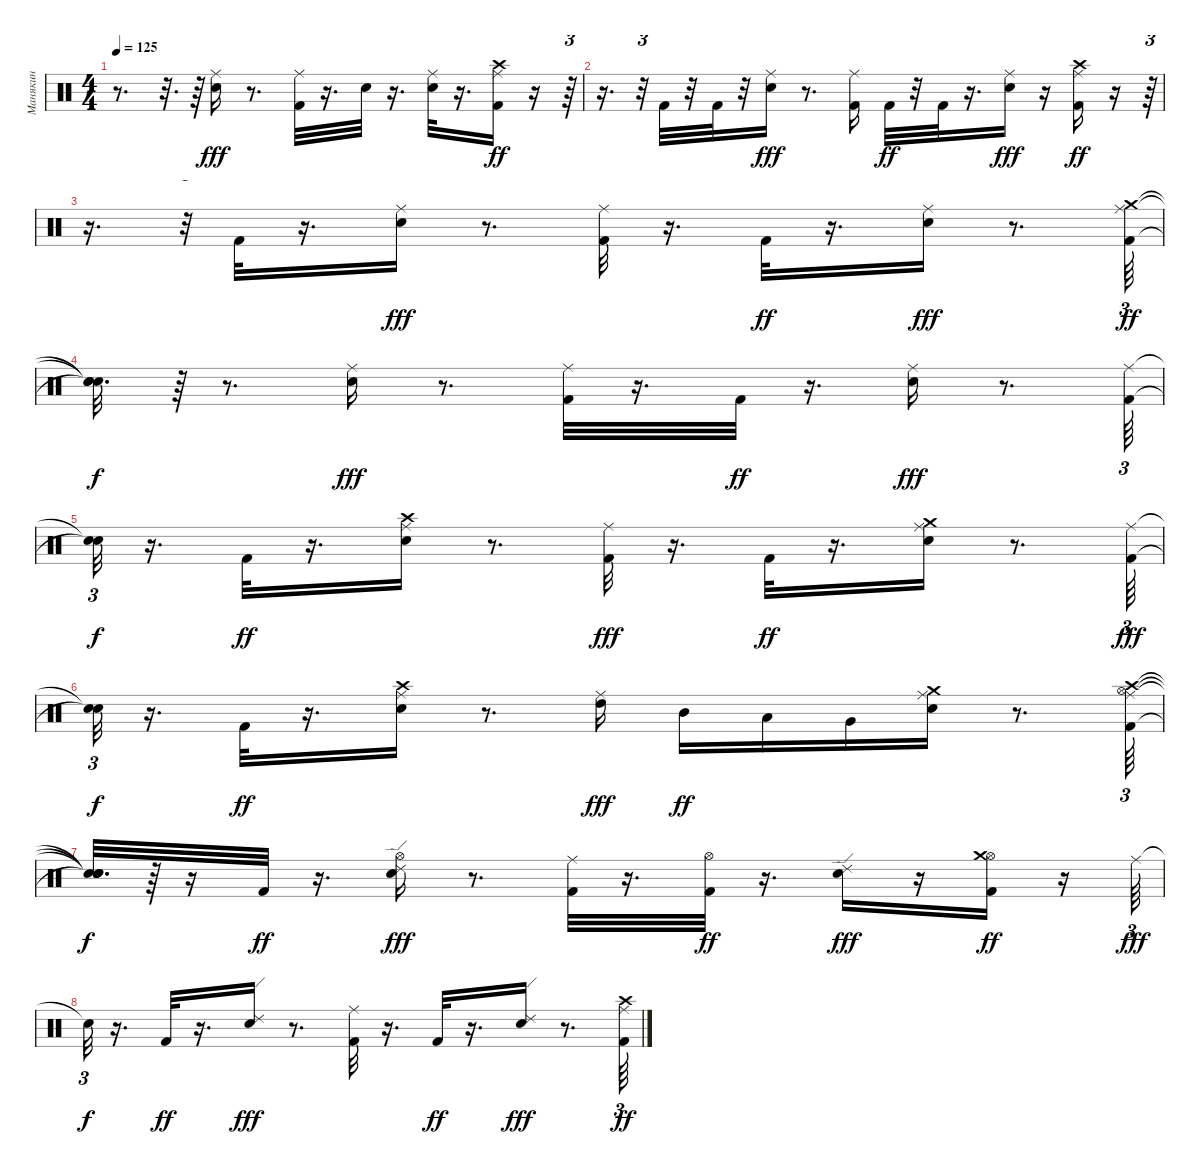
\track ("Манякин" "Манякин") {instrument percussion}
\staff {score}
\articulation defaults
\ts (4 4)
\tempo 125
\clef neutral
\ks c
r.8{d dy ff} r.32{d} r.64 ("Snare (hit) 2" "Ride (middle)").16{dy fff} r.8{d} ("Kick (hit) 2" "Ride (middle)").32 r.16{d} "Snare (hit) 2".32 r.16{d} ("Snare (hit) 2" "Ride (middle)").32 r.16{d} ("Kick (hit) 2" "Ride (middle)" "Crash high (hit)").16{dy ff} r.16 r.64{tu (3 2)} |
r.16{d} r.32{tu (3 2)} "Kick (hit) 2".32 r.32 "Kick (hit) 2".32 r.32 ("Snare (hit) 2" "Ride (middle)").16{dy fff} r.8{d} ("Kick (hit) 2" "Ride (middle)").16 "Kick (hit) 2".32{dy ff} r.32 "Kick (hit) 2".32 r.16{d} ("Snare (hit) 2" "Ride (middle)").16{dy fff} r.16 ("Kick (hit) 2" "Ride (middle)" "Crash high (hit)").16{dy ff} r.16 r.64{tu (3 2)} |
r.16{d} r.32{tu (3 2)} "Kick (hit) 2".32 r.16{d} ("Snare (hit) 2" "Ride (middle)").16{dy fff} r.8{d} ("Kick (hit) 2" "Ride (middle)").32 r.16{d} "Kick (hit) 2".32{dy ff} r.16{d} ("Snare (hit) 2" "Ride (middle)").16{dy fff} r.8{d} ("Kick (hit) 2" "Ride (middle)" "Crash medium (hit)").64{tu (3 2) dy ff} |
("Snare (hit)"{t} "Snare (hit)"{t} "Snare (hit)"{t}).32{d dy f} r.64 r.8{d} ("Snare (hit) 2" "Ride (middle)").16{dy fff} r.8{d} ("Kick (hit) 2" "Ride (middle)").32 r.16{d} "Kick (hit) 2".32{dy ff} r.16{d} ("Snare (hit) 2" "Ride (middle)").16{dy fff} r.8{d} ("Kick (hit) 2" "Ride (middle)").64{tu (3 2)} |
("Snare (hit)"{t} "Snare (hit)"{t}).32{tu (3 2) dy f} r.16{d} "Kick (hit) 2".32{dy ff} r.16{d} ("Snare (hit) 2" "Ride (middle)" "Crash high (hit)").16 r.8{d} ("Kick (hit) 2" "Ride (middle)").32{dy fff} r.16{d} "Kick (hit) 2".32{dy ff} r.16{d} ("Snare (hit) 2" "Ride (middle)" "Crash medium (hit)").16 r.8{d} ("Kick (hit) 2" "Ride (middle)").64{tu (3 2) dy fff} |
("Snare (hit)"{t} "Snare (hit)"{t}).32{tu (3 2) dy f} r.16{d} "Kick (hit) 2".32{dy ff} r.16{d} ("Snare (hit) 2" "Ride (middle)" "Crash high (hit)").16 r.8{d} ("High Tom (hit)" "Ride (middle)").16{dy fff} "Mid Tom (hit)".16{dy ff} "Low Tom (hit)".16 "Very Low Tom (hit)".16 ("Snare (hit) 2" "Ride (middle)" "Crash medium (hit)").16 r.8{d} ("Kick (hit) 2" "Hi-Hat (open)" "Ride (middle)" "Crash high (hit)").64{tu (3 2)} |
("Snare (hit)"{t} "Snare (hit)"{t} "Snare (hit)"{t} "Snare (hit)"{t}).32{d dy f} r.64 r.16 "Kick (hit) 2".32{dy ff} r.16{d} ("Snare (hit) 2" "Hi-Hat (open)" "Ride (edge) 2").16{dy fff} r.8{d} ("Kick (hit) 2" "Ride (middle)").32 r.16{d} ("Kick (hit) 2" "Hi-Hat (open)").32{dy ff} r.16{d} ("Snare (hit) 2" "Ride (edge) 2").16{dy fff} r.16 ("Kick (hit) 2" "Hi-Hat (open)" "Crash medium (hit)").16{dy ff} r.16 "Ride (middle)".64{tu (3 2) dy fff} |
"Snare (hit)"{t}.32{tu (3 2) dy f} r.16{d} "Kick (hit) 2".32{dy ff} r.16{d} ("Snare (hit) 2" "Ride (edge) 2").16{dy fff} r.8{d} ("Kick (hit) 2" "Ride (middle)").32 r.16{d} "Kick (hit) 2".32{dy ff} r.16{d} ("Snare (hit) 2" "Ride (edge) 2").16{dy fff} r.8{d} ("Kick (hit) 2" "Ride (middle)" "Crash high (hit)").64{tu (3 2) dy ff}
